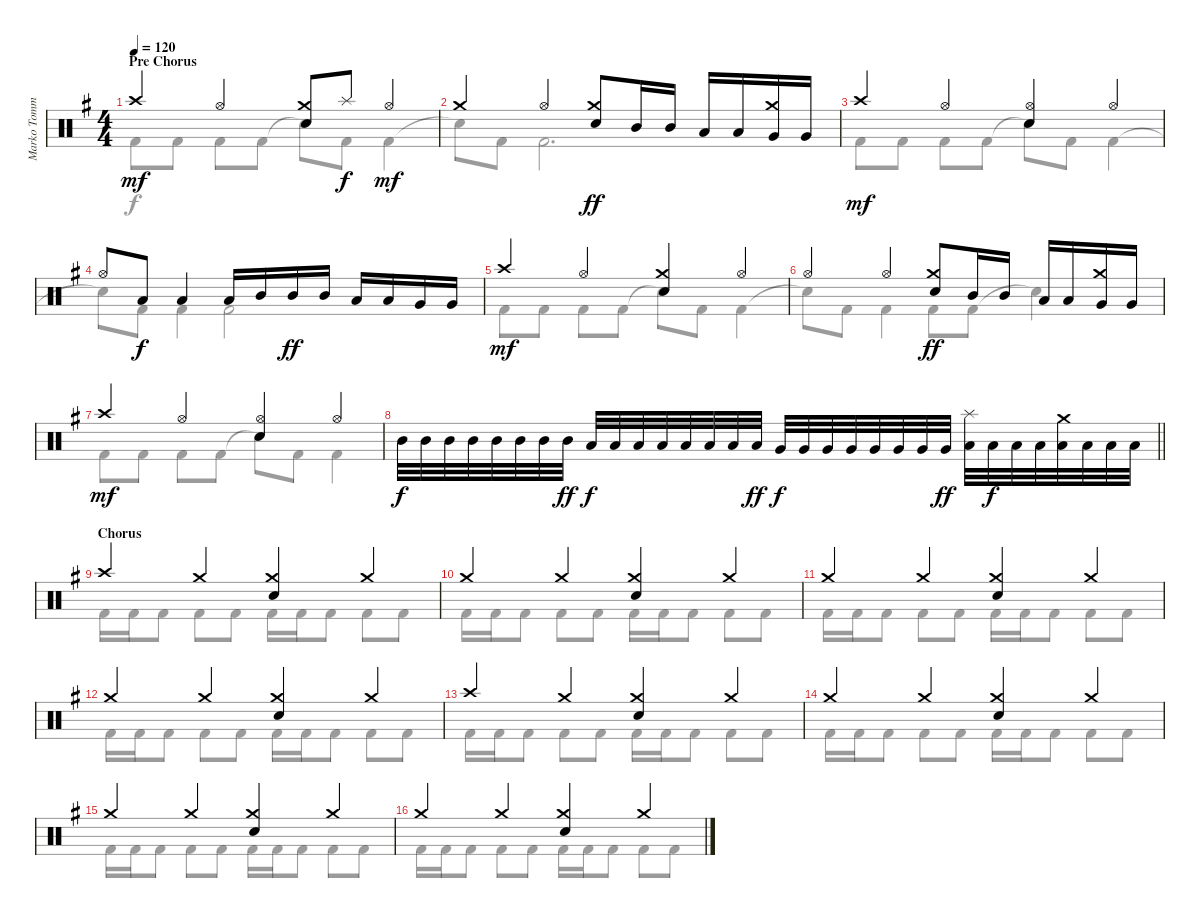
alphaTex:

\track ("Marko Tommila (drums)" "Marko Tomm") {instrument percussion}
\staff {score}
\articulation defaults
\voice
\ts (4 4)
\section ("" "Pre Chorus")
\tempo 120
\clef neutral
\ks eminor "Crash high (hit)".4{dy mf} "Hi-Hat (open)".4
("Crash medium (hit)" "Electric Snare (hit)").8 "Splash (hit)".8{dy f} "Hi-Hat (open)".4{dy mf} |
"Crash medium (hit)".4 "Hi-Hat (open)".4 ("Crash medium (hit)" "Electric Snare (hit)").8{dy ff} "Mid Tom (hit)".16 "Mid Tom (hit)".16 "Low Tom (hit)".16 "Low Tom (hit)".16 ("Crash medium (hit)" "Very Low Tom (hit)").16 "Very Low Tom (hit)".16 |
"Crash high (hit)".4{dy mf} "Hi-Hat (open)".4 ("Hi-Hat (open)" "Electric Snare (hit)").4 "Hi-Hat (open)".4 |
"Hi-Hat (open)".8 "Low Tom (hit)".8{dy f} "Low Tom (hit)".4 "Low Tom (hit)".16 "Mid Tom (hit)".16 "Mid Tom (hit)".16{dy ff} "Mid Tom (hit)".16 "Low Tom (hit)".16 "Low Tom (hit)".16 "Very Low Tom (hit)".16 "Very Low Tom (hit)".16 |
"Crash high (hit)".4{dy mf} "Hi-Hat (open)".4 ("Crash medium (hit)" "Electric Snare (hit)").4 "Hi-Hat (open)".4 |
"Hi-Hat (open)".4 "Hi-Hat (open)".4 ("Crash medium (hit)" "Electric Snare (hit)").8{dy ff} "Mid Tom (hit)".16 "Mid Tom (hit)".16 "Low Tom (hit)".16 "Low Tom (hit)".16 ("Crash medium (hit)" "Very Low Tom (hit)").16 "Very Low Tom (hit)".16 |
"Crash high (hit)".4{dy mf} "Hi-Hat (open)".4 ("Hi-Hat (open)" "Electric Snare (hit)").4 "Hi-Hat (open)".4 |
\barLineRight lightlight "Mid Tom (hit)".32{dy f} "Mid Tom (hit)".32 "Mid Tom (hit)".32 "Mid Tom (hit)".32 "Mid Tom (hit)".32 "Mid Tom (hit)".32 "Mid Tom (hit)".32 "Mid Tom (hit)".32{dy ff} "Low Tom (hit)".32{dy f} "Low Tom (hit)".32 "Low Tom (hit)".32 "Low Tom (hit)".32 "Low Tom (hit)".32 "Low Tom (hit)".32 "Low Tom (hit)".32 "Low Tom (hit)".32{dy ff} "Very Low Tom (hit)".32{dy f} "Very Low Tom (hit)".32 "Very Low Tom (hit)".32 "Very Low Tom (hit)".32 "Very Low Tom (hit)".32 "Very Low Tom (hit)".32 "Very Low Tom (hit)".32 "Very Low Tom (hit)".32{dy ff}
("Splash (hit)" "Low Floor Tom (hit)").32 "Low Floor Tom (hit)".32{dy f} "Low Floor Tom (hit)".32 "Low Floor Tom (hit)".32 ("Crash medium (hit)" "Low Floor Tom (hit)").32 "Low Floor Tom (hit)".32 "Low Floor Tom (hit)".32 "Low Floor Tom (hit)".32 |
\section ("" "Chorus")
"Crash high (hit)".4 "Crash medium (hit)".4 ("Crash medium (hit)" "Electric Snare (hit)").4 "Crash medium (hit)".4 |
"Crash medium (hit)".4 "Crash medium (hit)".4 ("Crash medium (hit)" "Electric Snare (hit)").4 "Crash medium (hit)".4 |
"Crash medium (hit)".4 "Crash medium (hit)".4 ("Crash medium (hit)" "Electric Snare (hit)").4 "Crash medium (hit)".4 |
"Crash medium (hit)".4 "Crash medium (hit)".4 ("Crash medium (hit)" "Electric Snare (hit)").4 "Crash medium (hit)".4 |
"Crash high (hit)".4 "Crash medium (hit)".4 ("Crash medium (hit)" "Electric Snare (hit)").4 "Crash medium (hit)".4 |
"Crash medium (hit)".4 "Crash medium (hit)".4 ("Crash medium (hit)" "Electric Snare (hit)").4 "Crash medium (hit)".4 |
"Crash medium (hit)".4 "Crash medium (hit)".4 ("Crash medium (hit)" "Electric Snare (hit)").4 "Crash medium (hit)".4 |
"Crash medium (hit)".4 "Crash medium (hit)".4 ("Crash medium (hit)" "Electric Snare (hit)").4 "Crash medium (hit)".4
\voice
\clef neutral
\ottava regular
\simile none
\ks eminor "Kick (hit) 2".8{dy f} "Kick (hit) 2".8 "Kick (hit) 2".8 "Kick (hit) 2".8 "Snare (hit)"{t}.8 "Kick (hit) 2".8 "Kick (hit) 2".4
|
"Snare (hit)"{t}.8 "Kick (hit) 2".8 "Kick (hit) 2".2{d} |
"Kick (hit) 2".8 "Kick (hit) 2".8 "Kick (hit) 2".8 "Kick (hit) 2".8 "Snare (hit)"{t}.8 "Kick (hit) 2".8 "Kick (hit) 2".4 |
"Snare (hit)"{t}.8 "Kick (hit) 2".8 "Kick (hit) 2".4 "Kick (hit) 2".2 |
"Kick (hit) 2".8 "Kick (hit) 2".8 "Kick (hit) 2".8 "Kick (hit) 2".8 "Snare (hit)"{t}.8 "Kick (hit) 2".8 "Kick (hit) 2".4 |
"Snare (hit)"{t}.8 "Kick (hit) 2".8 "Kick (hit) 2".4 "Kick (hit) 2".8 "Kick (hit) 2".8 "Snare (hit)"{t}.4 |
"Kick (hit) 2".8 "Kick (hit) 2".8 "Kick (hit) 2".8 "Kick (hit) 2".8 "Snare (hit)"{t}.8 "Kick (hit) 2".8 "Kick (hit) 2".4 |
\barLineRight lightlight
|
"Kick (hit) 2".16 "Kick (hit) 2".16 "Kick (hit) 2".8 "Kick (hit) 2".8 "Kick (hit) 2".8 "Kick (hit) 2".16 "Kick (hit) 2".16 "Kick (hit) 2".8 "Kick (hit) 2".8 "Kick (hit) 2".8 |
"Kick (hit) 2".16 "Kick (hit) 2".16 "Kick (hit) 2".8 "Kick (hit) 2".8 "Kick (hit) 2".8 "Kick (hit) 2".16 "Kick (hit) 2".16 "Kick (hit) 2".8 "Kick (hit) 2".8 "Kick (hit) 2".8 |
"Kick (hit) 2".16 "Kick (hit) 2".16 "Kick (hit) 2".8 "Kick (hit) 2".8 "Kick (hit) 2".8 "Kick (hit) 2".16 "Kick (hit) 2".16 "Kick (hit) 2".8 "Kick (hit) 2".8 "Kick (hit) 2".8 |
"Kick (hit) 2".16 "Kick (hit) 2".16 "Kick (hit) 2".8 "Kick (hit) 2".8 "Kick (hit) 2".8 "Kick (hit) 2".16 "Kick (hit) 2".16 "Kick (hit) 2".8 "Kick (hit) 2".8 "Kick (hit) 2".8 |
"Kick (hit) 2".16 "Kick (hit) 2".16 "Kick (hit) 2".8 "Kick (hit) 2".8 "Kick (hit) 2".8 "Kick (hit) 2".16 "Kick (hit) 2".16 "Kick (hit) 2".8 "Kick (hit) 2".8 "Kick (hit) 2".8 |
"Kick (hit) 2".16 "Kick (hit) 2".16 "Kick (hit) 2".8 "Kick (hit) 2".8 "Kick (hit) 2".8 "Kick (hit) 2".16 "Kick (hit) 2".16 "Kick (hit) 2".8 "Kick (hit) 2".8 "Kick (hit) 2".8 |
"Kick (hit) 2".16 "Kick (hit) 2".16 "Kick (hit) 2".8 "Kick (hit) 2".8 "Kick (hit) 2".8 "Kick (hit) 2".16 "Kick (hit) 2".16 "Kick (hit) 2".8 "Kick (hit) 2".8 "Kick (hit) 2".8 |
"Kick (hit) 2".16 "Kick (hit) 2".16 "Kick (hit) 2".8 "Kick (hit) 2".8 "Kick (hit) 2".8 "Kick (hit) 2".16 "Kick (hit) 2".16 "Kick (hit) 2".8 "Kick (hit) 2".8 "Kick (hit) 2".8
